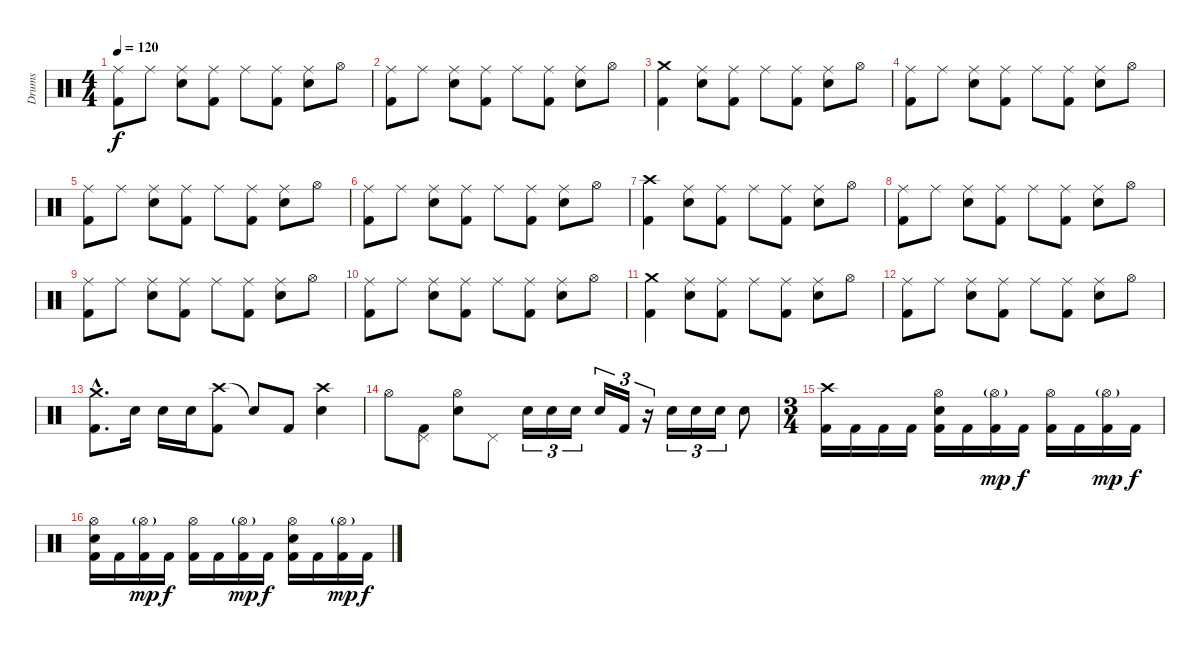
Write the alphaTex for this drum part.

\track ("Drums" "Drums") {instrument percussion}
\staff {score}
\articulation defaults
\ts (4 4)
\tempo 120
\clef neutral
\ks c
("Ride (middle)" "Kick (hit) 2").8{dy f} "Ride (middle)".8 ("Ride (middle)" "Snare (hit) 2").8 ("Ride (middle)" "Kick (hit) 2").8 "Ride (middle)".8 ("Ride (middle)" "Kick (hit) 2").8 ("Ride (middle)" "Snare (hit) 2").8 "Hi-Hat (open)".8 |
("Ride (middle)" "Kick (hit) 2").8 "Ride (middle)".8 ("Ride (middle)" "Snare (hit) 2").8 ("Ride (middle)" "Kick (hit) 2").8 "Ride (middle)".8 ("Ride (middle)" "Kick (hit) 2").8 ("Ride (middle)" "Snare (hit) 2").8 "Hi-Hat (open)".8 |
("Crash medium (hit)" "Kick (hit) 2").4 ("Ride (middle)" "Snare (hit) 2").8 ("Ride (middle)" "Kick (hit) 2").8 "Ride (middle)".8 ("Ride (middle)" "Kick (hit) 2").8 ("Ride (middle)" "Snare (hit) 2").8 "Hi-Hat (open)".8 |
("Ride (middle)" "Kick (hit) 2").8 "Ride (middle)".8 ("Ride (middle)" "Snare (hit) 2").8 ("Ride (middle)" "Kick (hit) 2").8 "Ride (middle)".8 ("Ride (middle)" "Kick (hit) 2").8 ("Ride (middle)" "Snare (hit) 2").8 "Hi-Hat (open)".8 |
("Ride (middle)" "Kick (hit) 2").8 "Ride (middle)".8 ("Ride (middle)" "Snare (hit) 2").8 ("Ride (middle)" "Kick (hit) 2").8 "Ride (middle)".8 ("Ride (middle)" "Kick (hit) 2").8 ("Ride (middle)" "Snare (hit) 2").8 "Hi-Hat (open)".8 |
("Ride (middle)" "Kick (hit) 2").8 "Ride (middle)".8 ("Ride (middle)" "Snare (hit) 2").8 ("Ride (middle)" "Kick (hit) 2").8 "Ride (middle)".8 ("Ride (middle)" "Kick (hit) 2").8 ("Ride (middle)" "Snare (hit) 2").8 "Hi-Hat (open)".8 |
("Crash high (hit)" "Kick (hit) 2").4 ("Ride (middle)" "Snare (hit) 2").8 ("Ride (middle)" "Kick (hit) 2").8 "Ride (middle)".8 ("Ride (middle)" "Kick (hit) 2").8 ("Ride (middle)" "Snare (hit) 2").8 "Hi-Hat (open)".8 |
("Ride (middle)" "Kick (hit) 2").8 "Ride (middle)".8 ("Ride (middle)" "Snare (hit) 2").8 ("Ride (middle)" "Kick (hit) 2").8 "Ride (middle)".8 ("Ride (middle)" "Kick (hit) 2").8 ("Ride (middle)" "Snare (hit) 2").8 "Hi-Hat (open)".8 |
("Ride (middle)" "Kick (hit) 2").8 "Ride (middle)".8 ("Ride (middle)" "Snare (hit) 2").8 ("Ride (middle)" "Kick (hit) 2").8 "Ride (middle)".8 ("Ride (middle)" "Kick (hit) 2").8 ("Ride (middle)" "Snare (hit) 2").8 "Hi-Hat (open)".8 |
("Ride (middle)" "Kick (hit) 2").8 "Ride (middle)".8 ("Ride (middle)" "Snare (hit) 2").8 ("Ride (middle)" "Kick (hit) 2").8 "Ride (middle)".8 ("Ride (middle)" "Kick (hit) 2").8 ("Ride (middle)" "Snare (hit) 2").8 "Hi-Hat (open)".8 |
("Crash medium (hit)" "Kick (hit) 2").4 ("Ride (middle)" "Snare (hit) 2").8 ("Ride (middle)" "Kick (hit) 2").8 "Ride (middle)".8 ("Ride (middle)" "Kick (hit) 2").8 ("Ride (middle)" "Snare (hit) 2").8 "Hi-Hat (open)".8 |
("Ride (middle)" "Kick (hit) 2").8 "Ride (middle)".8 ("Ride (middle)" "Snare (hit) 2").8 ("Ride (middle)" "Kick (hit) 2").8 "Ride (middle)".8 ("Ride (middle)" "Kick (hit) 2").8 ("Ride (middle)" "Snare (hit) 2").8 "Hi-Hat (open)".8 |
("Crash medium (hit)"{hac} "Kick (hit) 2"{hac}).8{d} "Snare (hit) 2".16 "Snare (hit) 2".16 "Snare (hit) 2".16 ("Crash high (hit)" "Kick (hit) 2").8 "Snare (hit)"{t}.8 "Kick (hit) 2".8 ("Crash high (hit)" "Snare (hit) 2").4 |
"Hi-Hat (open)".8 ("Pedal Hi-Hat (hit)" "Kick (hit) 2").8 ("Hi-Hat (open)" "Snare (hit) 2").8 "Pedal Hi-Hat (hit)".8 "Snare (hit) 2".16{tu (3 2)} "Snare (hit) 2".16{tu (3 2)} "Snare (hit) 2".16{tu (3 2)} "Snare (hit) 2".16{tu (3 2)} "Kick (hit) 2".16{tu (3 2)} r.16{tu (3 2)} "Snare (hit) 2".16{tu (3 2)} "Snare (hit) 2".16{tu (3 2)} "Snare (hit) 2".16{tu (3 2)} "Snare (hit) 2".8 |
\ts (3 4)
("Crash high (hit)" "Kick (hit) 2").16 "Kick (hit) 2".16 "Kick (hit) 2".16 "Kick (hit) 2".16 ("Hi-Hat (open)" "Snare (hit) 2" "Kick (hit) 2").16 "Kick (hit) 2".16 ("Hi-Hat (open)"{g} "Kick (hit) 2").16{dy mp} "Kick (hit) 2".16{dy f} ("Hi-Hat (open)" "Kick (hit) 2").16 "Kick (hit) 2".16 ("Hi-Hat (open)"{g} "Kick (hit) 2").16{dy mp} "Kick (hit) 2".16{dy f} |
("Hi-Hat (open)" "Snare (hit) 2" "Kick (hit) 2").16 "Kick (hit) 2".16 ("Hi-Hat (open)"{g} "Kick (hit) 2").16{dy mp} "Kick (hit) 2".16{dy f} ("Hi-Hat (open)" "Kick (hit) 2").16 "Kick (hit) 2".16 ("Hi-Hat (open)"{g} "Kick (hit) 2").16{dy mp} "Kick (hit) 2".16{dy f} ("Hi-Hat (open)" "Snare (hit) 2" "Kick (hit) 2").16 "Kick (hit) 2".16 ("Hi-Hat (open)"{g} "Kick (hit) 2").16{dy mp} "Kick (hit) 2".16{dy f}
